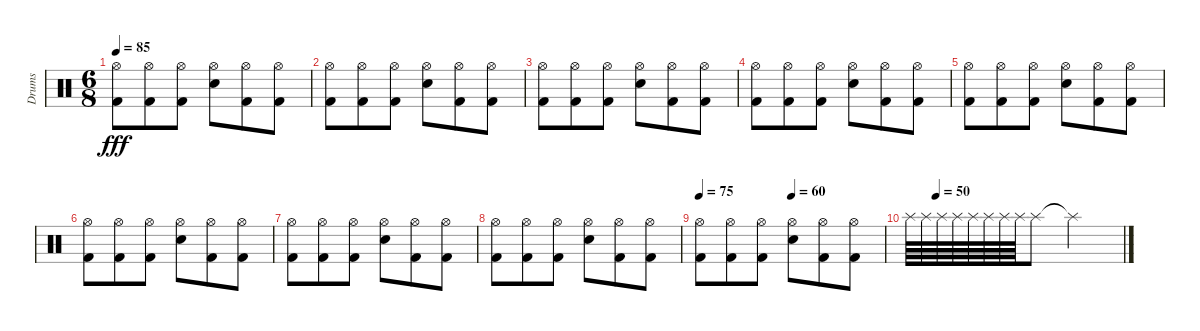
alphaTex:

\track ("Drums" "Drums") {instrument percussion}
\staff {score}
\articulation defaults
\ts (6 8)
\tempo 85
\clef neutral
\ks c
("Hi-Hat (open)" "Kick (hit) 2").8{dy fff} ("Hi-Hat (open)" "Kick (hit) 2").8 ("Hi-Hat (open)" "Kick (hit) 2").8 ("Hi-Hat (open)" "Electric Snare (hit)").8 ("Hi-Hat (open)" "Kick (hit) 2").8 ("Hi-Hat (open)" "Kick (hit) 2").8 |
("Hi-Hat (open)" "Kick (hit) 2").8 ("Hi-Hat (open)" "Kick (hit) 2").8 ("Hi-Hat (open)" "Kick (hit) 2").8 ("Hi-Hat (open)" "Electric Snare (hit)").8 ("Hi-Hat (open)" "Kick (hit) 2").8 ("Hi-Hat (open)" "Kick (hit) 2").8 |
("Hi-Hat (open)" "Kick (hit) 2").8 ("Hi-Hat (open)" "Kick (hit) 2").8 ("Hi-Hat (open)" "Kick (hit) 2").8 ("Hi-Hat (open)" "Electric Snare (hit)").8 ("Hi-Hat (open)" "Kick (hit) 2").8 ("Hi-Hat (open)" "Kick (hit) 2").8 |
("Hi-Hat (open)" "Kick (hit) 2").8 ("Hi-Hat (open)" "Kick (hit) 2").8 ("Hi-Hat (open)" "Kick (hit) 2").8 ("Hi-Hat (open)" "Electric Snare (hit)").8 ("Hi-Hat (open)" "Kick (hit) 2").8 ("Hi-Hat (open)" "Kick (hit) 2").8 |
("Hi-Hat (open)" "Kick (hit) 2").8 ("Hi-Hat (open)" "Kick (hit) 2").8 ("Hi-Hat (open)" "Kick (hit) 2").8 ("Hi-Hat (open)" "Electric Snare (hit)").8 ("Hi-Hat (open)" "Kick (hit) 2").8 ("Hi-Hat (open)" "Kick (hit) 2").8 |
("Hi-Hat (open)" "Kick (hit) 2").8 ("Hi-Hat (open)" "Kick (hit) 2").8 ("Hi-Hat (open)" "Kick (hit) 2").8 ("Hi-Hat (open)" "Electric Snare (hit)").8 ("Hi-Hat (open)" "Kick (hit) 2").8 ("Hi-Hat (open)" "Kick (hit) 2").8 |
("Hi-Hat (open)" "Kick (hit) 2").8 ("Hi-Hat (open)" "Kick (hit) 2").8 ("Hi-Hat (open)" "Kick (hit) 2").8 ("Hi-Hat (open)" "Electric Snare (hit)").8 ("Hi-Hat (open)" "Kick (hit) 2").8 ("Hi-Hat (open)" "Kick (hit) 2").8 |
("Hi-Hat (open)" "Kick (hit) 2").8 ("Hi-Hat (open)" "Kick (hit) 2").8 ("Hi-Hat (open)" "Kick (hit) 2").8 ("Hi-Hat (open)" "Electric Snare (hit)").8 ("Hi-Hat (open)" "Kick (hit) 2").8 ("Hi-Hat (open)" "Kick (hit) 2").8 |
\tempo 70
\tempo (60 0.5)
\tempo 75
("Hi-Hat (open)" "Kick (hit) 2").8 ("Hi-Hat (open)" "Kick (hit) 2").8 ("Hi-Hat (open)" "Kick (hit) 2").8 ("Hi-Hat (open)" "Electric Snare (hit)").8 ("Hi-Hat (open)" "Kick (hit) 2").8 ("Hi-Hat (open)" "Kick (hit) 2").8 |
\tempo (50 0.125)
"Splash (hit)".64 "Splash (hit)".64 "Splash (hit)".64 "Splash (hit)".64 "Splash (hit)".64 "Splash (hit)".64 "Splash (hit)".64 "Splash (hit)".64 "Splash (hit)".8 "Splash (hit)"{t}.2
